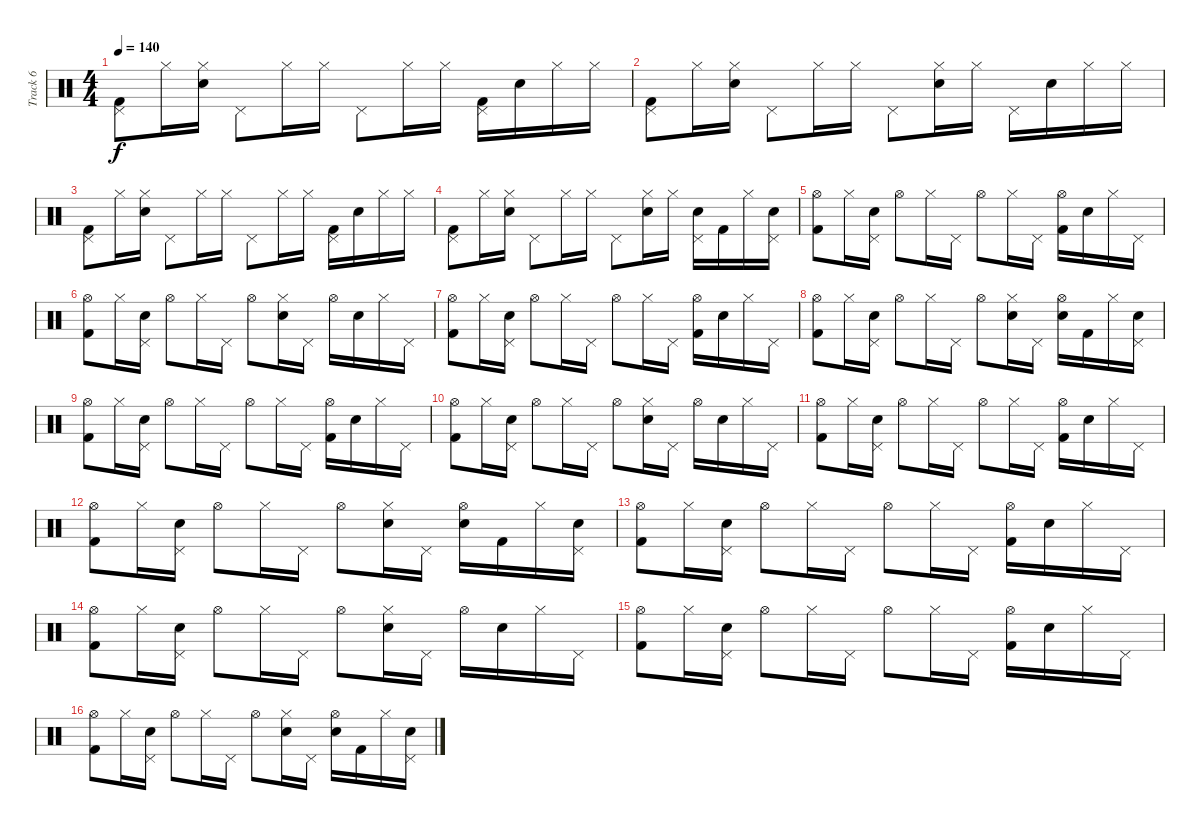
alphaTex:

\track ("Track 6" "Track 6") {instrument percussion}
\staff {score}
\articulation defaults
\ts (4 4)
\tempo 140
\clef neutral
\ks c
("Pedal Hi-Hat (hit)" "Kick (hit) 2").8{dy f} "Hi-Hat (closed)".16 ("Hi-Hat (closed)" "Electric Snare (hit)").16 "Pedal Hi-Hat (hit)".8 "Hi-Hat (closed)".16 "Hi-Hat (closed)".16 "Pedal Hi-Hat (hit)".8 "Hi-Hat (closed)".16 "Hi-Hat (closed)".16 ("Pedal Hi-Hat (hit)" "Kick (hit) 2").16 "Electric Snare (hit)".16 "Hi-Hat (closed)".16 "Hi-Hat (closed)".16 |
("Pedal Hi-Hat (hit)" "Kick (hit) 2").8 "Hi-Hat (closed)".16 ("Hi-Hat (closed)" "Electric Snare (hit)").16 "Pedal Hi-Hat (hit)".8 "Hi-Hat (closed)".16 "Hi-Hat (closed)".16 "Pedal Hi-Hat (hit)".8 ("Hi-Hat (closed)" "Electric Snare (hit)").16 "Hi-Hat (closed)".16 "Pedal Hi-Hat (hit)".16 "Electric Snare (hit)".16 "Hi-Hat (closed)".16 "Hi-Hat (closed)".16 |
("Pedal Hi-Hat (hit)" "Kick (hit) 2").8 "Hi-Hat (closed)".16 ("Hi-Hat (closed)" "Electric Snare (hit)").16 "Pedal Hi-Hat (hit)".8 "Hi-Hat (closed)".16 "Hi-Hat (closed)".16 "Pedal Hi-Hat (hit)".8 "Hi-Hat (closed)".16 "Hi-Hat (closed)".16 ("Pedal Hi-Hat (hit)" "Kick (hit) 2").16 "Electric Snare (hit)".16 "Hi-Hat (closed)".16 "Hi-Hat (closed)".16 |
("Pedal Hi-Hat (hit)" "Kick (hit) 2").8 "Hi-Hat (closed)".16 ("Hi-Hat (closed)" "Electric Snare (hit)").16 "Pedal Hi-Hat (hit)".8 "Hi-Hat (closed)".16 "Hi-Hat (closed)".16 "Pedal Hi-Hat (hit)".8 ("Hi-Hat (closed)" "Electric Snare (hit)").16 "Hi-Hat (closed)".16 ("Pedal Hi-Hat (hit)" "Electric Snare (hit)").16 "Kick (hit) 2".16 "Hi-Hat (closed)".16 ("Pedal Hi-Hat (hit)" "Electric Snare (hit)").16 |
("Hi-Hat (open)" "Kick (hit) 2").8 "Hi-Hat (closed)".16 ("Pedal Hi-Hat (hit)" "Electric Snare (hit)").16 "Hi-Hat (open)".8 "Hi-Hat (closed)".16 "Pedal Hi-Hat (hit)".16 "Hi-Hat (open)".8 "Hi-Hat (closed)".16 "Pedal Hi-Hat (hit)".16 ("Hi-Hat (open)" "Kick (hit) 2").16 "Electric Snare (hit)".16 "Hi-Hat (closed)".16 "Pedal Hi-Hat (hit)".16 |
("Hi-Hat (open)" "Kick (hit) 2").8 "Hi-Hat (closed)".16 ("Pedal Hi-Hat (hit)" "Electric Snare (hit)").16 "Hi-Hat (open)".8 "Hi-Hat (closed)".16 "Pedal Hi-Hat (hit)".16 "Hi-Hat (open)".8 ("Hi-Hat (closed)" "Electric Snare (hit)").16 "Pedal Hi-Hat (hit)".16 "Hi-Hat (open)".16 "Electric Snare (hit)".16 "Hi-Hat (closed)".16 "Pedal Hi-Hat (hit)".16 |
("Hi-Hat (open)" "Kick (hit) 2").8 "Hi-Hat (closed)".16 ("Pedal Hi-Hat (hit)" "Electric Snare (hit)").16 "Hi-Hat (open)".8 "Hi-Hat (closed)".16 "Pedal Hi-Hat (hit)".16 "Hi-Hat (open)".8 "Hi-Hat (closed)".16 "Pedal Hi-Hat (hit)".16 ("Hi-Hat (open)" "Kick (hit) 2").16 "Electric Snare (hit)".16 "Hi-Hat (closed)".16 "Pedal Hi-Hat (hit)".16 |
("Hi-Hat (open)" "Kick (hit) 2").8 "Hi-Hat (closed)".16 ("Pedal Hi-Hat (hit)" "Electric Snare (hit)").16 "Hi-Hat (open)".8 "Hi-Hat (closed)".16 "Pedal Hi-Hat (hit)".16 "Hi-Hat (open)".8 ("Hi-Hat (closed)" "Electric Snare (hit)").16 "Pedal Hi-Hat (hit)".16 ("Hi-Hat (open)" "Electric Snare (hit)").16 "Kick (hit) 2".16 "Hi-Hat (closed)".16 ("Pedal Hi-Hat (hit)" "Electric Snare (hit)").16 |
("Hi-Hat (open)" "Kick (hit) 2").8 "Hi-Hat (closed)".16 ("Pedal Hi-Hat (hit)" "Electric Snare (hit)").16 "Hi-Hat (open)".8 "Hi-Hat (closed)".16 "Pedal Hi-Hat (hit)".16 "Hi-Hat (open)".8 "Hi-Hat (closed)".16 "Pedal Hi-Hat (hit)".16 ("Hi-Hat (open)" "Kick (hit) 2").16 "Electric Snare (hit)".16 "Hi-Hat (closed)".16 "Pedal Hi-Hat (hit)".16 |
("Hi-Hat (open)" "Kick (hit) 2").8 "Hi-Hat (closed)".16 ("Pedal Hi-Hat (hit)" "Electric Snare (hit)").16 "Hi-Hat (open)".8 "Hi-Hat (closed)".16 "Pedal Hi-Hat (hit)".16 "Hi-Hat (open)".8 ("Hi-Hat (closed)" "Electric Snare (hit)").16 "Pedal Hi-Hat (hit)".16 "Hi-Hat (open)".16 "Electric Snare (hit)".16 "Hi-Hat (closed)".16 "Pedal Hi-Hat (hit)".16 |
("Hi-Hat (open)" "Kick (hit) 2").8 "Hi-Hat (closed)".16 ("Pedal Hi-Hat (hit)" "Electric Snare (hit)").16 "Hi-Hat (open)".8 "Hi-Hat (closed)".16 "Pedal Hi-Hat (hit)".16 "Hi-Hat (open)".8 "Hi-Hat (closed)".16 "Pedal Hi-Hat (hit)".16 ("Hi-Hat (open)" "Kick (hit) 2").16 "Electric Snare (hit)".16 "Hi-Hat (closed)".16 "Pedal Hi-Hat (hit)".16 |
("Hi-Hat (open)" "Kick (hit) 2").8 "Hi-Hat (closed)".16 ("Pedal Hi-Hat (hit)" "Electric Snare (hit)").16 "Hi-Hat (open)".8 "Hi-Hat (closed)".16 "Pedal Hi-Hat (hit)".16 "Hi-Hat (open)".8 ("Hi-Hat (closed)" "Electric Snare (hit)").16 "Pedal Hi-Hat (hit)".16 ("Hi-Hat (open)" "Electric Snare (hit)").16 "Kick (hit) 2".16 "Hi-Hat (closed)".16 ("Pedal Hi-Hat (hit)" "Electric Snare (hit)").16 |
("Hi-Hat (open)" "Kick (hit) 2").8 "Hi-Hat (closed)".16 ("Pedal Hi-Hat (hit)" "Electric Snare (hit)").16 "Hi-Hat (open)".8 "Hi-Hat (closed)".16 "Pedal Hi-Hat (hit)".16 "Hi-Hat (open)".8 "Hi-Hat (closed)".16 "Pedal Hi-Hat (hit)".16 ("Hi-Hat (open)" "Kick (hit) 2").16 "Electric Snare (hit)".16 "Hi-Hat (closed)".16 "Pedal Hi-Hat (hit)".16 |
("Hi-Hat (open)" "Kick (hit) 2").8 "Hi-Hat (closed)".16 ("Pedal Hi-Hat (hit)" "Electric Snare (hit)").16 "Hi-Hat (open)".8 "Hi-Hat (closed)".16 "Pedal Hi-Hat (hit)".16 "Hi-Hat (open)".8 ("Hi-Hat (closed)" "Electric Snare (hit)").16 "Pedal Hi-Hat (hit)".16 "Hi-Hat (open)".16 "Electric Snare (hit)".16 "Hi-Hat (closed)".16 "Pedal Hi-Hat (hit)".16 |
("Hi-Hat (open)" "Kick (hit) 2").8 "Hi-Hat (closed)".16 ("Pedal Hi-Hat (hit)" "Electric Snare (hit)").16 "Hi-Hat (open)".8 "Hi-Hat (closed)".16 "Pedal Hi-Hat (hit)".16 "Hi-Hat (open)".8 "Hi-Hat (closed)".16 "Pedal Hi-Hat (hit)".16 ("Hi-Hat (open)" "Kick (hit) 2").16 "Electric Snare (hit)".16 "Hi-Hat (closed)".16 "Pedal Hi-Hat (hit)".16 |
("Hi-Hat (open)" "Kick (hit) 2").8 "Hi-Hat (closed)".16 ("Pedal Hi-Hat (hit)" "Electric Snare (hit)").16 "Hi-Hat (open)".8 "Hi-Hat (closed)".16 "Pedal Hi-Hat (hit)".16 "Hi-Hat (open)".8 ("Hi-Hat (closed)" "Electric Snare (hit)").16 "Pedal Hi-Hat (hit)".16 ("Hi-Hat (open)" "Electric Snare (hit)").16 "Kick (hit) 2".16 "Hi-Hat (closed)".16 ("Pedal Hi-Hat (hit)" "Electric Snare (hit)").16
